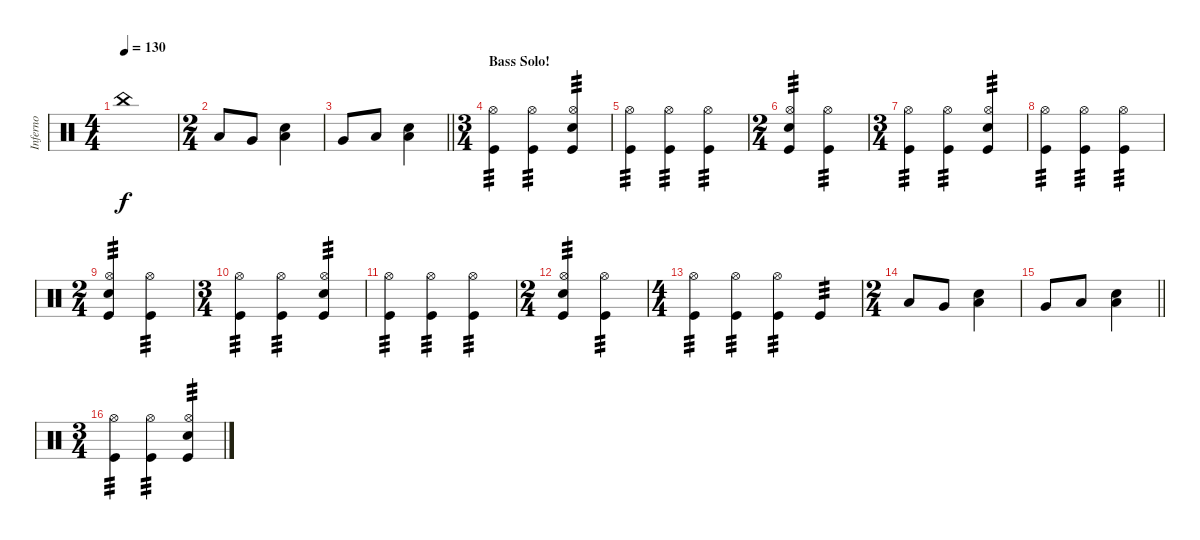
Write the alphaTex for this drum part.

\track ("Inferno" "Inferno") {instrument percussion}
\staff {score}
\articulation defaults
\ts (4 4)
\tempo 130
\clef neutral
\ks c "China (hit)".1{dy f}
|
\ts (2 4)
"Low Tom (hit)".8 "Very Low Tom (hit)".8 ("Snare (hit) 2" "Low Floor Tom (hit)").4 |
\barLineRight lightlight "Very Low Tom (hit)".8 "Low Floor Tom (hit)".8
("Low Floor Tom (hit)" "Snare (hit) 2").4 |
\ts (3 4)
\section ("" "Bass Solo!")
("Hi-Hat (open)" "Kick (hit)").4{tp 3} ("Hi-Hat (open)" "Kick (hit)").4{tp 3} ("Hi-Hat (open)" "Snare (hit) 2" "Kick (hit)").4{tp 3} |
("Hi-Hat (open)" "Kick (hit)").4{tp 3} ("Hi-Hat (open)" "Kick (hit)").4{tp 3} ("Hi-Hat (open)" "Kick (hit)").4{tp 3} |
\ts (2 4)
("Hi-Hat (open)" "Snare (hit) 2" "Kick (hit)").4{tp 3} ("Hi-Hat (open)" "Kick (hit)").4{tp 3} |
\ts (3 4)
("Hi-Hat (open)" "Kick (hit)").4{tp 3} ("Hi-Hat (open)" "Kick (hit)").4{tp 3} ("Hi-Hat (open)" "Snare (hit) 2" "Kick (hit)").4{tp 3} |
("Hi-Hat (open)" "Kick (hit)").4{tp 3} ("Hi-Hat (open)" "Kick (hit)").4{tp 3} ("Hi-Hat (open)" "Kick (hit)").4{tp 3} |
\ts (2 4)
("Hi-Hat (open)" "Snare (hit) 2" "Kick (hit)").4{tp 3} ("Hi-Hat (open)" "Kick (hit)").4{tp 3} |
\ts (3 4)
("Hi-Hat (open)" "Kick (hit)").4{tp 3} ("Hi-Hat (open)" "Kick (hit)").4{tp 3} ("Hi-Hat (open)" "Snare (hit) 2" "Kick (hit)").4{tp 3} |
("Hi-Hat (open)" "Kick (hit)").4{tp 3} ("Hi-Hat (open)" "Kick (hit)").4{tp 3} ("Hi-Hat (open)" "Kick (hit)").4{tp 3} |
\ts (2 4)
("Hi-Hat (open)" "Snare (hit) 2" "Kick (hit)").4{tp 3} ("Hi-Hat (open)" "Kick (hit)").4{tp 3} |
\ts (4 4)
("Hi-Hat (open)" "Kick (hit)").4{tp 3} ("Hi-Hat (open)" "Kick (hit)").4{tp 3} ("Hi-Hat (open)" "Kick (hit)").4{tp 3} "Kick (hit)".4{tp 3} |
\ts (2 4)
"Low Tom (hit)".8 "Very Low Tom (hit)".8 ("Snare (hit) 2" "Low Floor Tom (hit)").4 |
\barLineRight lightlight "Very Low Tom (hit)".8 "Low Floor Tom (hit)".8
("Low Floor Tom (hit)" "Snare (hit) 2").4 |
\ts (3 4)
("Hi-Hat (open)" "Kick (hit)").4{tp 3} ("Hi-Hat (open)" "Kick (hit)").4{tp 3} ("Hi-Hat (open)" "Snare (hit) 2" "Kick (hit)").4{tp 3}
